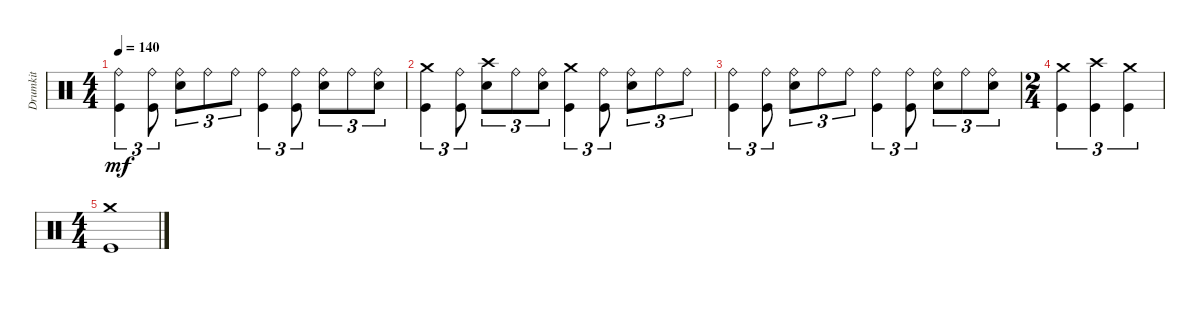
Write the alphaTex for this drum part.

\track ("Drumkit" "Drumkit") {instrument percussion}
\staff {score}
\articulation defaults
\ts (4 4)
\tempo 140
\clef neutral
\ks c
("Kick (hit)" "Ride (bell)").4{tu (3 2) dy mf} ("Ride (bell)" "Kick (hit)").8{tu (3 2)} ("Ride (bell)" "Snare (hit) 2").8{tu (3 2)} "Ride (bell)".8{tu (3 2)} "Ride (bell)".8{tu (3 2)} ("Ride (bell)" "Kick (hit)").4{tu (3 2)} ("Ride (bell)" "Kick (hit)").8{tu (3 2)} ("Ride (bell)" "Snare (hit) 2").8{tu (3 2)} "Ride (bell)".8{tu (3 2)} ("Ride (bell)" "Snare (hit) 2").8{tu (3 2)} |
("Kick (hit)" "Crash medium (hit)").4{tu (3 2)} ("Ride (bell)" "Kick (hit)").8{tu (3 2)} ("Snare (hit) 2" "Crash high (hit)").8{tu (3 2)} "Ride (bell)".8{tu (3 2)} ("Ride (bell)" "Snare (hit) 2").8{tu (3 2)} ("Kick (hit)" "Crash medium (hit)").4{tu (3 2)} ("Ride (bell)" "Kick (hit)").8{tu (3 2)} ("Ride (bell)" "Snare (hit) 2").8{tu (3 2)} "Ride (bell)".8{tu (3 2)} "Ride (bell)".8{tu (3 2)} |
("Kick (hit)" "Ride (bell)").4{tu (3 2)} ("Ride (bell)" "Kick (hit)").8{tu (3 2)} ("Ride (bell)" "Snare (hit) 2").8{tu (3 2)} "Ride (bell)".8{tu (3 2)} "Ride (bell)".8{tu (3 2)} ("Ride (bell)" "Kick (hit)").4{tu (3 2)} ("Ride (bell)" "Kick (hit)").8{tu (3 2)} ("Ride (bell)" "Snare (hit) 2").8{tu (3 2)} "Ride (bell)".8{tu (3 2)} ("Ride (bell)" "Snare (hit) 2").8{tu (3 2)} |
\ts (2 4)
("Crash medium (hit)" "Kick (hit)").4{tu (3 2)} ("Crash high (hit)" "Kick (hit)").4{tu (3 2)} ("Crash medium (hit)" "Kick (hit)").4{tu (3 2)} |
\ts (4 4)
("Crash medium (hit)" "Kick (hit)").1
